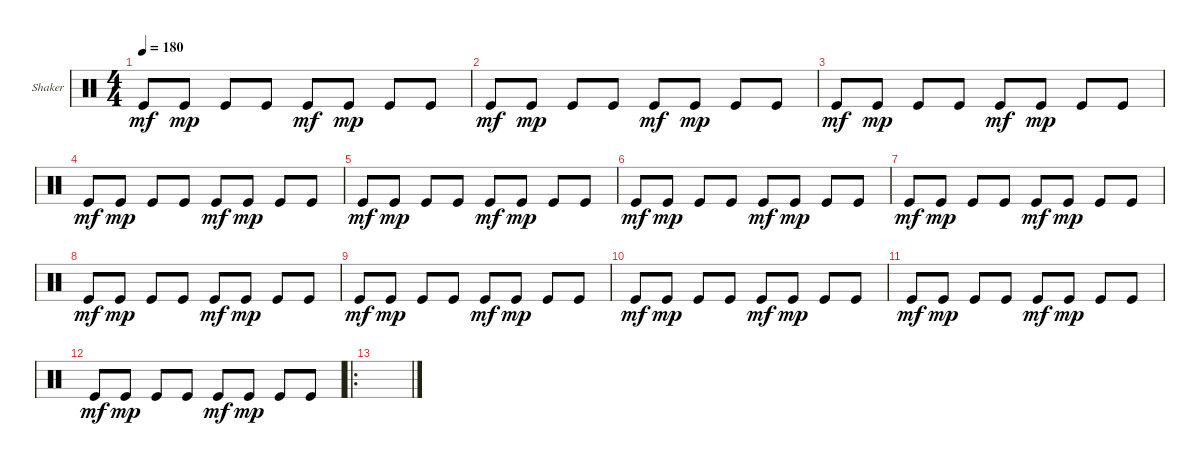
\defaultSystemsLayout 4
\bracketExtendMode groupsimilarinstruments
\firstSystemTrackNameOrientation horizontal
\otherSystemsTrackNameOrientation horizontal
\track ("Shaker" "Shaker") {instrument percussion}
\staff {score}
\articulation defaults
\ts (4 4)
\tempo 180
\clef neutral
\ks c "Kick (hit)".8{dy mf} "Kick (hit)".8{dy mp} "Kick (hit)".8 "Kick (hit)".8 "Kick (hit)".8{dy mf} "Kick (hit)".8{dy mp} "Kick (hit)".8 "Kick (hit)".8
|
"Kick (hit)".8{dy mf} "Kick (hit)".8{dy mp} "Kick (hit)".8 "Kick (hit)".8 "Kick (hit)".8{dy mf} "Kick (hit)".8{dy mp} "Kick (hit)".8 "Kick (hit)".8 |
"Kick (hit)".8{dy mf} "Kick (hit)".8{dy mp} "Kick (hit)".8 "Kick (hit)".8 "Kick (hit)".8{dy mf} "Kick (hit)".8{dy mp} "Kick (hit)".8 "Kick (hit)".8 |
"Kick (hit)".8{dy mf} "Kick (hit)".8{dy mp} "Kick (hit)".8 "Kick (hit)".8 "Kick (hit)".8{dy mf} "Kick (hit)".8{dy mp} "Kick (hit)".8 "Kick (hit)".8 |
"Kick (hit)".8{dy mf} "Kick (hit)".8{dy mp} "Kick (hit)".8 "Kick (hit)".8 "Kick (hit)".8{dy mf} "Kick (hit)".8{dy mp} "Kick (hit)".8 "Kick (hit)".8 |
"Kick (hit)".8{dy mf} "Kick (hit)".8{dy mp} "Kick (hit)".8 "Kick (hit)".8 "Kick (hit)".8{dy mf} "Kick (hit)".8{dy mp} "Kick (hit)".8 "Kick (hit)".8 |
"Kick (hit)".8{dy mf} "Kick (hit)".8{dy mp} "Kick (hit)".8 "Kick (hit)".8 "Kick (hit)".8{dy mf} "Kick (hit)".8{dy mp} "Kick (hit)".8 "Kick (hit)".8 |
"Kick (hit)".8{dy mf} "Kick (hit)".8{dy mp} "Kick (hit)".8 "Kick (hit)".8 "Kick (hit)".8{dy mf} "Kick (hit)".8{dy mp} "Kick (hit)".8 "Kick (hit)".8 |
"Kick (hit)".8{dy mf} "Kick (hit)".8{dy mp} "Kick (hit)".8 "Kick (hit)".8 "Kick (hit)".8{dy mf} "Kick (hit)".8{dy mp} "Kick (hit)".8 "Kick (hit)".8 |
"Kick (hit)".8{dy mf} "Kick (hit)".8{dy mp} "Kick (hit)".8 "Kick (hit)".8 "Kick (hit)".8{dy mf} "Kick (hit)".8{dy mp} "Kick (hit)".8 "Kick (hit)".8 |
"Kick (hit)".8{dy mf} "Kick (hit)".8{dy mp} "Kick (hit)".8 "Kick (hit)".8 "Kick (hit)".8{dy mf} "Kick (hit)".8{dy mp} "Kick (hit)".8 "Kick (hit)".8 |
"Kick (hit)".8{dy mf} "Kick (hit)".8{dy mp} "Kick (hit)".8 "Kick (hit)".8 "Kick (hit)".8{dy mf} "Kick (hit)".8{dy mp} "Kick (hit)".8 "Kick (hit)".8 |
\ro
